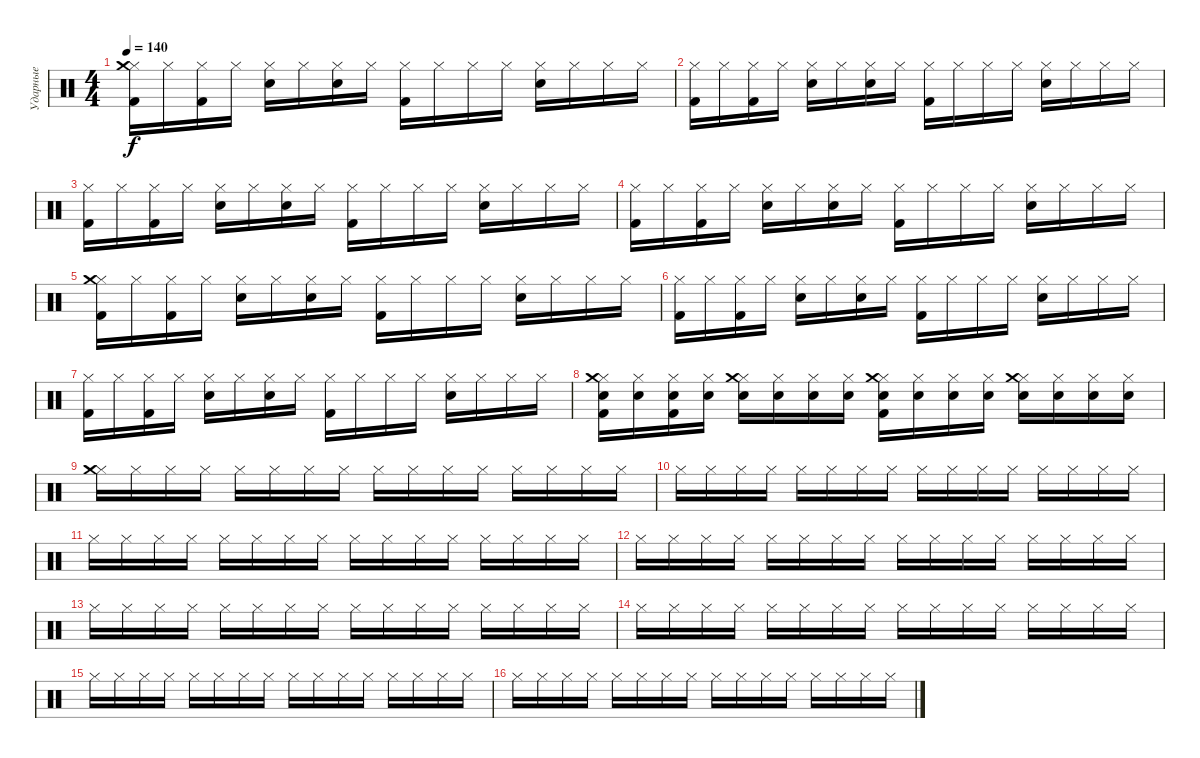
\track ("Ударные" "Ударные") {instrument percussion}
\staff {score}
\articulation defaults
\ts (4 4)
\tempo 140
\clef neutral
\ks c
("Hi-Hat (closed)" "Kick (hit) 2" "Crash medium (hit)").16{dy f} "Hi-Hat (closed)".16 ("Hi-Hat (closed)" "Kick (hit) 2").16 "Hi-Hat (closed)".16 ("Hi-Hat (closed)" "Electric Snare (hit)").16 "Hi-Hat (closed)".16 ("Hi-Hat (closed)" "Electric Snare (hit)").16 "Hi-Hat (closed)".16 ("Hi-Hat (closed)" "Kick (hit) 2").16 "Hi-Hat (closed)".16 "Hi-Hat (closed)".16 "Hi-Hat (closed)".16 ("Hi-Hat (closed)" "Electric Snare (hit)").16 "Hi-Hat (closed)".16 "Hi-Hat (closed)".16 "Hi-Hat (closed)".16 |
("Hi-Hat (closed)" "Kick (hit) 2").16 "Hi-Hat (closed)".16 ("Hi-Hat (closed)" "Kick (hit) 2").16 "Hi-Hat (closed)".16 ("Hi-Hat (closed)" "Electric Snare (hit)").16 "Hi-Hat (closed)".16 ("Hi-Hat (closed)" "Electric Snare (hit)").16 "Hi-Hat (closed)".16 ("Hi-Hat (closed)" "Kick (hit) 2").16 "Hi-Hat (closed)".16 "Hi-Hat (closed)".16 "Hi-Hat (closed)".16 ("Hi-Hat (closed)" "Electric Snare (hit)").16 "Hi-Hat (closed)".16 "Hi-Hat (closed)".16 "Hi-Hat (closed)".16 |
("Hi-Hat (closed)" "Kick (hit) 2").16 "Hi-Hat (closed)".16 ("Hi-Hat (closed)" "Kick (hit) 2").16 "Hi-Hat (closed)".16 ("Hi-Hat (closed)" "Electric Snare (hit)").16 "Hi-Hat (closed)".16 ("Hi-Hat (closed)" "Electric Snare (hit)").16 "Hi-Hat (closed)".16 ("Hi-Hat (closed)" "Kick (hit) 2").16 "Hi-Hat (closed)".16 "Hi-Hat (closed)".16 "Hi-Hat (closed)".16 ("Hi-Hat (closed)" "Electric Snare (hit)").16 "Hi-Hat (closed)".16 "Hi-Hat (closed)".16 "Hi-Hat (closed)".16 |
("Hi-Hat (closed)" "Kick (hit) 2").16 "Hi-Hat (closed)".16 ("Hi-Hat (closed)" "Kick (hit) 2").16 "Hi-Hat (closed)".16 ("Hi-Hat (closed)" "Electric Snare (hit)").16 "Hi-Hat (closed)".16 ("Hi-Hat (closed)" "Electric Snare (hit)").16 "Hi-Hat (closed)".16 ("Hi-Hat (closed)" "Kick (hit) 2").16 "Hi-Hat (closed)".16 "Hi-Hat (closed)".16 "Hi-Hat (closed)".16 ("Hi-Hat (closed)" "Electric Snare (hit)").16 "Hi-Hat (closed)".16 "Hi-Hat (closed)".16 "Hi-Hat (closed)".16 |
("Hi-Hat (closed)" "Kick (hit) 2" "Crash medium (hit)").16 "Hi-Hat (closed)".16 ("Hi-Hat (closed)" "Kick (hit) 2").16 "Hi-Hat (closed)".16 ("Hi-Hat (closed)" "Electric Snare (hit)").16 "Hi-Hat (closed)".16 ("Hi-Hat (closed)" "Electric Snare (hit)").16 "Hi-Hat (closed)".16 ("Hi-Hat (closed)" "Kick (hit) 2").16 "Hi-Hat (closed)".16 "Hi-Hat (closed)".16 "Hi-Hat (closed)".16 ("Hi-Hat (closed)" "Electric Snare (hit)").16 "Hi-Hat (closed)".16 "Hi-Hat (closed)".16 "Hi-Hat (closed)".16 |
("Hi-Hat (closed)" "Kick (hit) 2").16 "Hi-Hat (closed)".16 ("Hi-Hat (closed)" "Kick (hit) 2").16 "Hi-Hat (closed)".16 ("Hi-Hat (closed)" "Electric Snare (hit)").16 "Hi-Hat (closed)".16 ("Hi-Hat (closed)" "Electric Snare (hit)").16 "Hi-Hat (closed)".16 ("Hi-Hat (closed)" "Kick (hit) 2").16 "Hi-Hat (closed)".16 "Hi-Hat (closed)".16 "Hi-Hat (closed)".16 ("Hi-Hat (closed)" "Electric Snare (hit)").16 "Hi-Hat (closed)".16 "Hi-Hat (closed)".16 "Hi-Hat (closed)".16 |
("Hi-Hat (closed)" "Kick (hit) 2").16 "Hi-Hat (closed)".16 ("Hi-Hat (closed)" "Kick (hit) 2").16 "Hi-Hat (closed)".16 ("Hi-Hat (closed)" "Electric Snare (hit)").16 "Hi-Hat (closed)".16 ("Hi-Hat (closed)" "Electric Snare (hit)").16 "Hi-Hat (closed)".16 ("Hi-Hat (closed)" "Kick (hit) 2").16 "Hi-Hat (closed)".16 "Hi-Hat (closed)".16 "Hi-Hat (closed)".16 ("Hi-Hat (closed)" "Electric Snare (hit)").16 "Hi-Hat (closed)".16 "Hi-Hat (closed)".16 "Hi-Hat (closed)".16 |
("Hi-Hat (closed)" "Kick (hit) 2" "Electric Snare (hit)" "Crash medium (hit)").16 ("Hi-Hat (closed)" "Electric Snare (hit)").16 ("Hi-Hat (closed)" "Kick (hit) 2" "Electric Snare (hit)").16 ("Hi-Hat (closed)" "Electric Snare (hit)").16 ("Hi-Hat (closed)" "Electric Snare (hit)" "Crash medium (hit)").16 ("Hi-Hat (closed)" "Electric Snare (hit)").16 ("Hi-Hat (closed)" "Electric Snare (hit)").16 ("Hi-Hat (closed)" "Electric Snare (hit)").16 ("Hi-Hat (closed)" "Electric Snare (hit)" "Kick (hit) 2" "Crash medium (hit)").16 ("Hi-Hat (closed)" "Electric Snare (hit)").16 ("Hi-Hat (closed)" "Electric Snare (hit)").16 ("Hi-Hat (closed)" "Electric Snare (hit)").16 ("Hi-Hat (closed)" "Electric Snare (hit)" "Crash medium (hit)").16 ("Hi-Hat (closed)" "Electric Snare (hit)").16 ("Hi-Hat (closed)" "Electric Snare (hit)").16 ("Hi-Hat (closed)" "Electric Snare (hit)").16 |
("Hi-Hat (closed)" "Crash medium (hit)").16 "Hi-Hat (closed)".16 "Hi-Hat (closed)".16 "Hi-Hat (closed)".16 "Hi-Hat (closed)".16 "Hi-Hat (closed)".16 "Hi-Hat (closed)".16 "Hi-Hat (closed)".16 "Hi-Hat (closed)".16 "Hi-Hat (closed)".16 "Hi-Hat (closed)".16 "Hi-Hat (closed)".16 "Hi-Hat (closed)".16 "Hi-Hat (closed)".16 "Hi-Hat (closed)".16 "Hi-Hat (closed)".16 |
"Hi-Hat (closed)".16 "Hi-Hat (closed)".16 "Hi-Hat (closed)".16 "Hi-Hat (closed)".16 "Hi-Hat (closed)".16 "Hi-Hat (closed)".16 "Hi-Hat (closed)".16 "Hi-Hat (closed)".16 "Hi-Hat (closed)".16 "Hi-Hat (closed)".16 "Hi-Hat (closed)".16 "Hi-Hat (closed)".16 "Hi-Hat (closed)".16 "Hi-Hat (closed)".16 "Hi-Hat (closed)".16 "Hi-Hat (closed)".16 |
"Hi-Hat (closed)".16 "Hi-Hat (closed)".16 "Hi-Hat (closed)".16 "Hi-Hat (closed)".16 "Hi-Hat (closed)".16 "Hi-Hat (closed)".16 "Hi-Hat (closed)".16 "Hi-Hat (closed)".16 "Hi-Hat (closed)".16 "Hi-Hat (closed)".16 "Hi-Hat (closed)".16 "Hi-Hat (closed)".16 "Hi-Hat (closed)".16 "Hi-Hat (closed)".16 "Hi-Hat (closed)".16 "Hi-Hat (closed)".16 |
"Hi-Hat (closed)".16 "Hi-Hat (closed)".16 "Hi-Hat (closed)".16 "Hi-Hat (closed)".16 "Hi-Hat (closed)".16 "Hi-Hat (closed)".16 "Hi-Hat (closed)".16 "Hi-Hat (closed)".16 "Hi-Hat (closed)".16 "Hi-Hat (closed)".16 "Hi-Hat (closed)".16 "Hi-Hat (closed)".16 "Hi-Hat (closed)".16 "Hi-Hat (closed)".16 "Hi-Hat (closed)".16 "Hi-Hat (closed)".16 |
"Hi-Hat (closed)".16 "Hi-Hat (closed)".16 "Hi-Hat (closed)".16 "Hi-Hat (closed)".16 "Hi-Hat (closed)".16 "Hi-Hat (closed)".16 "Hi-Hat (closed)".16 "Hi-Hat (closed)".16 "Hi-Hat (closed)".16 "Hi-Hat (closed)".16 "Hi-Hat (closed)".16 "Hi-Hat (closed)".16 "Hi-Hat (closed)".16 "Hi-Hat (closed)".16 "Hi-Hat (closed)".16 "Hi-Hat (closed)".16 |
"Hi-Hat (closed)".16 "Hi-Hat (closed)".16 "Hi-Hat (closed)".16 "Hi-Hat (closed)".16 "Hi-Hat (closed)".16 "Hi-Hat (closed)".16 "Hi-Hat (closed)".16 "Hi-Hat (closed)".16 "Hi-Hat (closed)".16 "Hi-Hat (closed)".16 "Hi-Hat (closed)".16 "Hi-Hat (closed)".16 "Hi-Hat (closed)".16 "Hi-Hat (closed)".16 "Hi-Hat (closed)".16 "Hi-Hat (closed)".16 |
"Hi-Hat (closed)".16 "Hi-Hat (closed)".16 "Hi-Hat (closed)".16 "Hi-Hat (closed)".16 "Hi-Hat (closed)".16 "Hi-Hat (closed)".16 "Hi-Hat (closed)".16 "Hi-Hat (closed)".16 "Hi-Hat (closed)".16 "Hi-Hat (closed)".16 "Hi-Hat (closed)".16 "Hi-Hat (closed)".16 "Hi-Hat (closed)".16 "Hi-Hat (closed)".16 "Hi-Hat (closed)".16 "Hi-Hat (closed)".16 |
"Hi-Hat (closed)".16 "Hi-Hat (closed)".16 "Hi-Hat (closed)".16 "Hi-Hat (closed)".16 "Hi-Hat (closed)".16 "Hi-Hat (closed)".16 "Hi-Hat (closed)".16 "Hi-Hat (closed)".16 "Hi-Hat (closed)".16 "Hi-Hat (closed)".16 "Hi-Hat (closed)".16 "Hi-Hat (closed)".16 "Hi-Hat (closed)".16 "Hi-Hat (closed)".16 "Hi-Hat (closed)".16 "Hi-Hat (closed)".16
